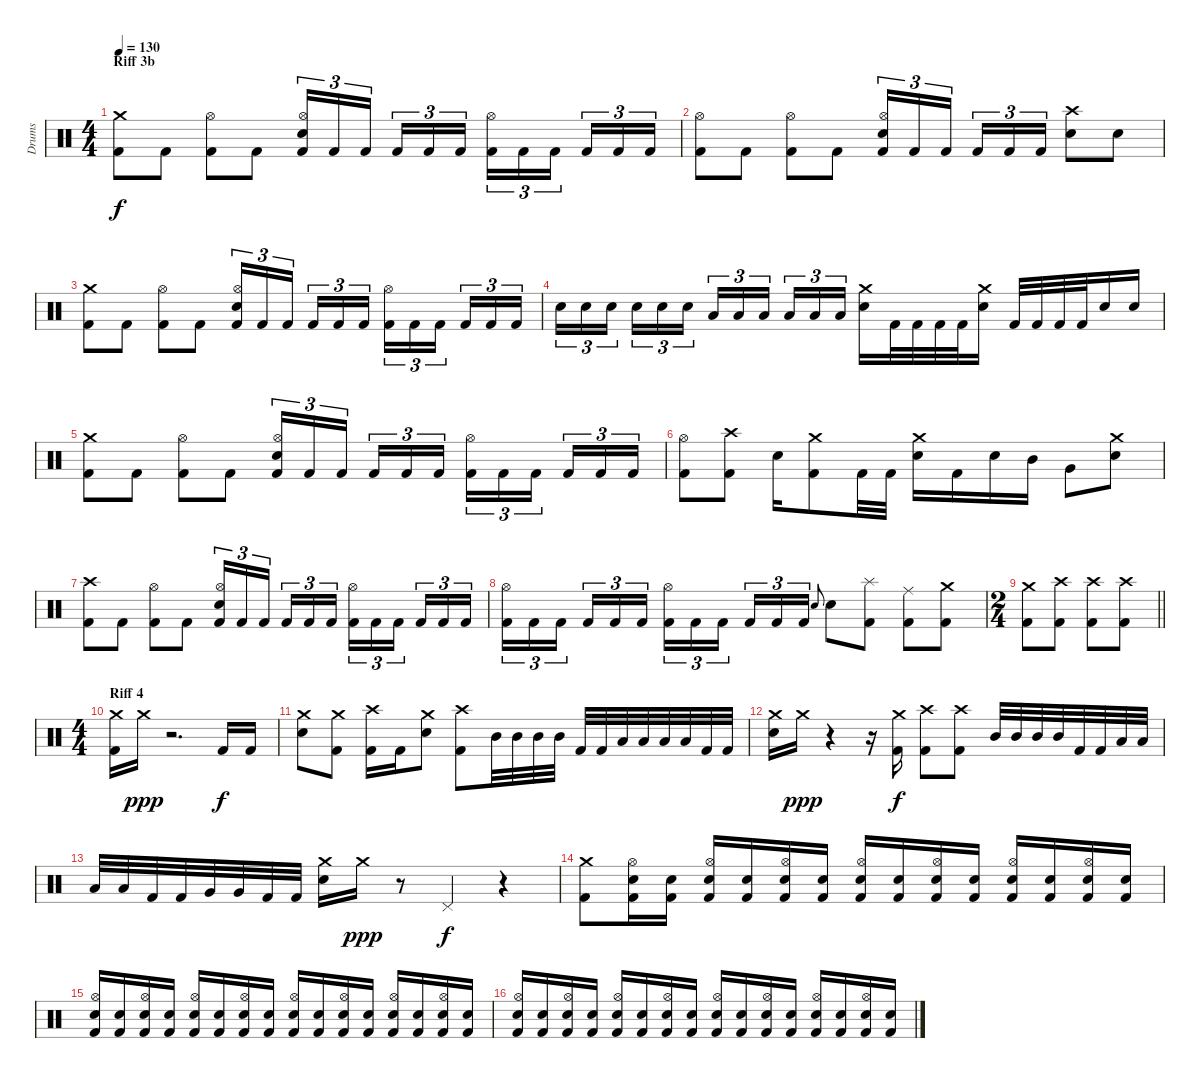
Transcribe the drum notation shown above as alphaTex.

\track ("Drums" "Drums") {instrument percussion}
\staff {score}
\articulation defaults
\ts (4 4)
\section ("" "Riff 3b")
\tempo 130
\clef neutral
\ks c
("Kick (hit) 2" "Crash medium (hit)").8{dy f} "Kick (hit) 2".8 ("Kick (hit) 2" "Hi-Hat (open)").8 "Kick (hit) 2".8 ("Kick (hit) 2" "Electric Snare (hit)" "Hi-Hat (open)").16{tu (3 2)} "Kick (hit) 2".16{tu (3 2)} "Kick (hit) 2".16{tu (3 2) beam splitsecondary} "Kick (hit) 2".16{tu (3 2)} "Kick (hit) 2".16{tu (3 2)} "Kick (hit) 2".16{tu (3 2)} ("Kick (hit) 2" "Hi-Hat (open)").16{tu (3 2)} "Kick (hit) 2".16{tu (3 2)} "Kick (hit) 2".16{tu (3 2) beam splitsecondary} "Kick (hit) 2".16{tu (3 2)} "Kick (hit) 2".16{tu (3 2)} "Kick (hit) 2".16{tu (3 2)} |
("Kick (hit) 2" "Hi-Hat (open)").8 "Kick (hit) 2".8 ("Kick (hit) 2" "Hi-Hat (open)").8 "Kick (hit) 2".8 ("Kick (hit) 2" "Electric Snare (hit)" "Hi-Hat (open)").16{tu (3 2)} "Kick (hit) 2".16{tu (3 2)} "Kick (hit) 2".16{tu (3 2) beam splitsecondary} "Kick (hit) 2".16{tu (3 2)} "Kick (hit) 2".16{tu (3 2)} "Kick (hit) 2".16{tu (3 2)} ("Electric Snare (hit)" "Crash high (hit)").8 "Electric Snare (hit)".8 |
("Kick (hit) 2" "Crash medium (hit)").8 "Kick (hit) 2".8 ("Kick (hit) 2" "Hi-Hat (open)").8 "Kick (hit) 2".8 ("Kick (hit) 2" "Electric Snare (hit)" "Hi-Hat (open)").16{tu (3 2)} "Kick (hit) 2".16{tu (3 2)} "Kick (hit) 2".16{tu (3 2) beam splitsecondary} "Kick (hit) 2".16{tu (3 2)} "Kick (hit) 2".16{tu (3 2)} "Kick (hit) 2".16{tu (3 2)} ("Kick (hit) 2" "Hi-Hat (open)").16{tu (3 2)} "Kick (hit) 2".16{tu (3 2)} "Kick (hit) 2".16{tu (3 2) beam splitsecondary} "Kick (hit) 2".16{tu (3 2)} "Kick (hit) 2".16{tu (3 2)} "Kick (hit) 2".16{tu (3 2)} |
"Electric Snare (hit)".16{tu (3 2)} "Electric Snare (hit)".16{tu (3 2)} "Electric Snare (hit)".16{tu (3 2) beam splitsecondary} "Electric Snare (hit)".16{tu (3 2)} "Electric Snare (hit)".16{tu (3 2)} "Electric Snare (hit)".16{tu (3 2)} "Low Tom (hit)".16{tu (3 2)} "Low Tom (hit)".16{tu (3 2)} "Low Tom (hit)".16{tu (3 2) beam splitsecondary} "Low Tom (hit)".16{tu (3 2)} "Low Tom (hit)".16{tu (3 2)} "Low Tom (hit)".16{tu (3 2)} ("Electric Snare (hit)" "Crash medium (hit)").16 "Kick (hit) 2".32 "Kick (hit) 2".32 "Kick (hit) 2".32 "Kick (hit) 2".32 ("Electric Snare (hit)" "Crash medium (hit)").16 "Kick (hit) 2".32 "Kick (hit) 2".32 "Kick (hit) 2".32 "Kick (hit) 2".32 "Electric Snare (hit)".16 "Electric Snare (hit)".16 |
("Kick (hit) 2" "Crash medium (hit)").8 "Kick (hit) 2".8 ("Kick (hit) 2" "Hi-Hat (open)").8 "Kick (hit) 2".8 ("Kick (hit) 2" "Electric Snare (hit)" "Hi-Hat (open)").16{tu (3 2)} "Kick (hit) 2".16{tu (3 2)} "Kick (hit) 2".16{tu (3 2) beam splitsecondary} "Kick (hit) 2".16{tu (3 2)} "Kick (hit) 2".16{tu (3 2)} "Kick (hit) 2".16{tu (3 2)} ("Kick (hit) 2" "Hi-Hat (open)").16{tu (3 2)} "Kick (hit) 2".16{tu (3 2)} "Kick (hit) 2".16{tu (3 2) beam splitsecondary} "Kick (hit) 2".16{tu (3 2)} "Kick (hit) 2".16{tu (3 2)} "Kick (hit) 2".16{tu (3 2)} |
("Kick (hit) 2" "Hi-Hat (open)").8 ("Crash high (hit)" "Kick (hit) 2").8 "Electric Snare (hit)".16 ("Kick (hit) 2" "Crash medium (hit)").8 "Kick (hit) 2".32 "Kick (hit) 2".32 ("Electric Snare (hit)" "Crash medium (hit)").16 "Kick (hit) 2".16 "Electric Snare (hit)".16 "Mid Tom (hit)".16 "Very Low Tom (hit)".8 ("Electric Snare (hit)" "Crash medium (hit)").8 |
("Kick (hit) 2" "Crash high (hit)").8 "Kick (hit) 2".8 ("Kick (hit) 2" "Hi-Hat (open)").8 "Kick (hit) 2".8 ("Kick (hit) 2" "Electric Snare (hit)" "Hi-Hat (open)").16{tu (3 2)} "Kick (hit) 2".16{tu (3 2)} "Kick (hit) 2".16{tu (3 2) beam splitsecondary} "Kick (hit) 2".16{tu (3 2)} "Kick (hit) 2".16{tu (3 2)} "Kick (hit) 2".16{tu (3 2)} ("Kick (hit) 2" "Hi-Hat (open)").16{tu (3 2)} "Kick (hit) 2".16{tu (3 2)} "Kick (hit) 2".16{tu (3 2) beam splitsecondary} "Kick (hit) 2".16{tu (3 2)} "Kick (hit) 2".16{tu (3 2)} "Kick (hit) 2".16{tu (3 2)} |
("Kick (hit) 2" "Hi-Hat (open)").16{tu (3 2)} "Kick (hit) 2".16{tu (3 2)} "Kick (hit) 2".16{tu (3 2) beam splitsecondary} "Kick (hit) 2".16{tu (3 2)} "Kick (hit) 2".16{tu (3 2)} "Kick (hit) 2".16{tu (3 2)} ("Kick (hit) 2" "Hi-Hat (open)").16{tu (3 2)} "Kick (hit) 2".16{tu (3 2)} "Kick (hit) 2".16{tu (3 2) beam splitsecondary} "Kick (hit) 2".16{tu (3 2)} "Kick (hit) 2".16{tu (3 2)} "Kick (hit) 2".16{tu (3 2)} "Electric Snare (hit)".8{gr onbeat} "Electric Snare (hit)".8 ("Kick (hit) 2" "Splash (hit)").8 ("Kick (hit) 2" "Ride (middle)").8 ("Kick (hit) 2" "Crash medium (hit)").8 |
\ts (2 4)
\barLineRight lightlight
("Crash medium (hit)" "Kick (hit) 2").8 ("Crash high (hit)" "Kick (hit) 2").8 ("Crash high (hit)" "Kick (hit) 2").8 ("Kick (hit) 2" "Crash high (hit)").8 |
\ts (4 4)
\section ("" "Riff 4")
("Kick (hit) 2" "Crash medium (hit)").16 "Crash medium (hit)".16{dy ppp} r.2{d} "Kick (hit) 2".16{dy f} "Kick (hit) 2".16 |
("Electric Snare (hit)" "Crash medium (hit)").8 ("Kick (hit) 2" "Crash medium (hit)").8 ("Kick (hit) 2" "Crash high (hit)").16 "Kick (hit) 2".16 ("Electric Snare (hit)" "Crash medium (hit)").8 ("Kick (hit) 2" "Crash high (hit)").8 "Mid Tom (hit)".32 "Mid Tom (hit)".32 "Mid Tom (hit)".32 "Mid Tom (hit)".32 "Kick (hit) 2".32 "Kick (hit) 2".32 "Low Tom (hit)".32 "Low Tom (hit)".32 "Low Tom (hit)".32 "Low Tom (hit)".32 "Kick (hit) 2".32 "Kick (hit) 2".32 |
("Crash medium (hit)" "Electric Snare (hit)").16 "Crash medium (hit)".16{dy ppp} r.4 r.16 ("Kick (hit) 2" "Crash medium (hit)").16{dy f} ("Kick (hit) 2" "Crash high (hit)").8 ("Kick (hit) 2" "Crash high (hit)").8 "Mid Tom (hit)".32 "Mid Tom (hit)".32 "Mid Tom (hit)".32 "Mid Tom (hit)".32 "Kick (hit) 2".32 "Kick (hit) 2".32 "Low Tom (hit)".32 "Low Tom (hit)".32 |
"Low Tom (hit)".32 "Low Tom (hit)".32 "Kick (hit) 2".32 "Kick (hit) 2".32 "Very Low Tom (hit)".32 "Very Low Tom (hit)".32 "Kick (hit) 2".32 "Kick (hit) 2".32 ("Electric Snare (hit)" "Crash medium (hit)").16 "Crash medium (hit)".16{dy ppp} r.8 "Pedal Hi-Hat (hit)".4{dy f} r.4 |
("Kick (hit) 2" "Crash medium (hit)").8 ("Kick (hit) 2" "Electric Snare (hit)" "Hi-Hat (open)").16 ("Kick (hit) 2" "Electric Snare (hit)").16 ("Kick (hit) 2" "Electric Snare (hit)" "Hi-Hat (open)").16 ("Kick (hit) 2" "Electric Snare (hit)").16 ("Kick (hit) 2" "Electric Snare (hit)" "Hi-Hat (open)").16 ("Kick (hit) 2" "Electric Snare (hit)").16 ("Kick (hit) 2" "Electric Snare (hit)" "Hi-Hat (open)").16 ("Kick (hit) 2" "Electric Snare (hit)").16 ("Kick (hit) 2" "Electric Snare (hit)" "Hi-Hat (open)").16 ("Kick (hit) 2" "Electric Snare (hit)").16 ("Kick (hit) 2" "Electric Snare (hit)" "Hi-Hat (open)").16 ("Kick (hit) 2" "Electric Snare (hit)").16 ("Kick (hit) 2" "Electric Snare (hit)" "Hi-Hat (open)").16 ("Kick (hit) 2" "Electric Snare (hit)").16 |
("Kick (hit) 2" "Electric Snare (hit)" "Hi-Hat (open)").16 ("Kick (hit) 2" "Electric Snare (hit)").16 ("Kick (hit) 2" "Electric Snare (hit)" "Hi-Hat (open)").16 ("Kick (hit) 2" "Electric Snare (hit)").16 ("Kick (hit) 2" "Electric Snare (hit)" "Hi-Hat (open)").16 ("Kick (hit) 2" "Electric Snare (hit)").16 ("Kick (hit) 2" "Electric Snare (hit)" "Hi-Hat (open)").16 ("Kick (hit) 2" "Electric Snare (hit)").16 ("Kick (hit) 2" "Electric Snare (hit)" "Hi-Hat (open)").16 ("Kick (hit) 2" "Electric Snare (hit)").16 ("Kick (hit) 2" "Electric Snare (hit)" "Hi-Hat (open)").16 ("Kick (hit) 2" "Electric Snare (hit)").16 ("Kick (hit) 2" "Electric Snare (hit)" "Hi-Hat (open)").16 ("Kick (hit) 2" "Electric Snare (hit)").16 ("Kick (hit) 2" "Electric Snare (hit)" "Hi-Hat (open)").16 ("Kick (hit) 2" "Electric Snare (hit)").16 |
("Kick (hit) 2" "Electric Snare (hit)" "Hi-Hat (open)").16 ("Kick (hit) 2" "Electric Snare (hit)").16 ("Kick (hit) 2" "Electric Snare (hit)" "Hi-Hat (open)").16 ("Kick (hit) 2" "Electric Snare (hit)").16 ("Kick (hit) 2" "Electric Snare (hit)" "Hi-Hat (open)").16 ("Kick (hit) 2" "Electric Snare (hit)").16 ("Kick (hit) 2" "Electric Snare (hit)" "Hi-Hat (open)").16 ("Kick (hit) 2" "Electric Snare (hit)").16 ("Kick (hit) 2" "Electric Snare (hit)" "Hi-Hat (open)").16 ("Kick (hit) 2" "Electric Snare (hit)").16 ("Kick (hit) 2" "Electric Snare (hit)" "Hi-Hat (open)").16 ("Kick (hit) 2" "Electric Snare (hit)").16 ("Kick (hit) 2" "Electric Snare (hit)" "Hi-Hat (open)").16 ("Kick (hit) 2" "Electric Snare (hit)").16 ("Kick (hit) 2" "Electric Snare (hit)" "Hi-Hat (open)").16 ("Kick (hit) 2" "Electric Snare (hit)").16
